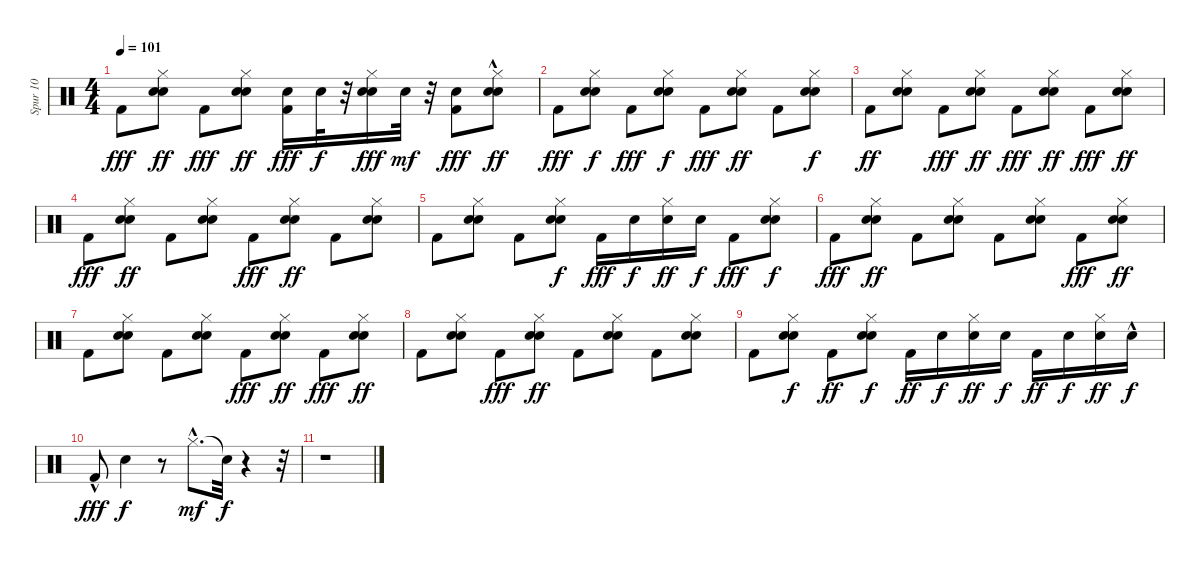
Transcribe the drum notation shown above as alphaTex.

\track ("Spur 10" "Spur 10") {instrument percussion}
\staff {score}
\articulation defaults
\ts (4 4)
\tempo 101
\clef neutral
\ks c "Kick (hit) 2".8{dy fff}
("Snare (hit) 2" "Snare (hit) 2" "Hi-Hat (closed)").8{dy ff} "Kick (hit) 2".8{dy fff} ("Snare (hit) 2" "Hi-Hat (closed)" "Snare (hit) 2").8{dy ff} ("Snare (hit) 2" "Kick (hit) 2").16{dy fff} "Snare (hit) 2".32{dy f} r.32 ("Snare (hit) 2" "Hi-Hat (closed)" "Snare (hit) 2").16{dy fff} "Snare (hit) 2".32{dy mf} r.32 ("Snare (hit) 2" "Kick (hit) 2").8{dy fff} ("Snare (hit) 2" "Snare (hit) 2"{hac} "Hi-Hat (closed)"{hac}).8{dy ff} |
"Kick (hit) 2".8{dy fff} ("Snare (hit) 2" "Hi-Hat (closed)" "Snare (hit) 2").8{dy f} "Kick (hit) 2".8{dy fff} ("Snare (hit) 2" "Hi-Hat (closed)" "Snare (hit) 2").8{dy f} "Kick (hit) 2".8{dy fff} ("Snare (hit) 2" "Hi-Hat (closed)" "Snare (hit) 2").8{dy ff} "Kick (hit) 2".8 ("Snare (hit) 2" "Snare (hit) 2" "Hi-Hat (closed)").8{dy f} |
"Kick (hit) 2".8{dy ff} ("Snare (hit) 2" "Snare (hit) 2" "Hi-Hat (closed)").8 "Kick (hit) 2".8{dy fff} ("Snare (hit) 2" "Snare (hit) 2" "Hi-Hat (closed)").8{dy ff} "Kick (hit) 2".8{dy fff} ("Snare (hit) 2" "Snare (hit) 2" "Hi-Hat (closed)").8{dy ff} "Kick (hit) 2".8{dy fff} ("Snare (hit) 2" "Snare (hit) 2" "Hi-Hat (closed)").8{dy ff} |
"Kick (hit) 2".8{dy fff} ("Snare (hit) 2" "Snare (hit) 2" "Hi-Hat (closed)").8{dy ff} "Kick (hit) 2".8 ("Snare (hit) 2" "Snare (hit) 2" "Hi-Hat (closed)").8 "Kick (hit) 2".8{dy fff} ("Snare (hit) 2" "Snare (hit) 2" "Hi-Hat (closed)").8{dy ff} "Kick (hit) 2".8 ("Snare (hit) 2" "Hi-Hat (closed)" "Snare (hit) 2").8 |
"Kick (hit) 2".8 ("Snare (hit) 2" "Hi-Hat (closed)" "Snare (hit) 2").8 "Kick (hit) 2".8 ("Snare (hit) 2" "Snare (hit) 2" "Hi-Hat (closed)").8{dy f} "Kick (hit) 2".16{dy fff} "Snare (hit) 2".16{dy f} ("Snare (hit) 2" "Hi-Hat (closed)").16{dy ff} "Snare (hit) 2".16{dy f} "Kick (hit) 2".8{dy fff} ("Snare (hit) 2" "Snare (hit) 2" "Hi-Hat (closed)").8{dy f} |
"Kick (hit) 2".8{dy fff} ("Snare (hit) 2" "Hi-Hat (closed)" "Snare (hit) 2").8{dy ff} "Kick (hit) 2".8 ("Snare (hit) 2" "Hi-Hat (closed)" "Snare (hit) 2").8 "Kick (hit) 2".8 ("Snare (hit) 2" "Hi-Hat (closed)" "Snare (hit) 2").8 "Kick (hit) 2".8{dy fff} ("Snare (hit) 2" "Snare (hit) 2" "Hi-Hat (closed)").8{dy ff} |
"Kick (hit) 2".8 ("Snare (hit) 2" "Hi-Hat (closed)" "Snare (hit) 2").8 "Kick (hit) 2".8 ("Snare (hit) 2" "Hi-Hat (closed)" "Snare (hit) 2").8 "Kick (hit) 2".8{dy fff} ("Snare (hit) 2" "Snare (hit) 2" "Hi-Hat (closed)").8{dy ff} "Kick (hit) 2".8{dy fff} ("Snare (hit) 2" "Hi-Hat (closed)" "Snare (hit) 2").8{dy ff} |
"Kick (hit) 2".8 ("Snare (hit) 2" "Hi-Hat (closed)" "Snare (hit) 2").8 "Kick (hit) 2".8{dy fff} ("Snare (hit) 2" "Snare (hit) 2" "Hi-Hat (closed)").8{dy ff} "Kick (hit) 2".8 ("Snare (hit) 2" "Hi-Hat (closed)" "Snare (hit) 2").8 "Kick (hit) 2".8 ("Snare (hit) 2" "Hi-Hat (closed)" "Snare (hit) 2").8 |
"Kick (hit) 2".8 ("Snare (hit) 2" "Hi-Hat (closed)" "Snare (hit) 2").8{dy f} "Kick (hit) 2".8{dy ff} ("Snare (hit) 2" "Hi-Hat (closed)" "Snare (hit) 2").8{dy f} "Kick (hit) 2".16{dy ff} "Snare (hit) 2".16{dy f} ("Hi-Hat (closed)" "Snare (hit) 2").16{dy ff} "Snare (hit) 2".16{dy f} "Kick (hit) 2".16{dy ff} "Snare (hit) 2".16{dy f} ("Snare (hit) 2" "Hi-Hat (closed)").16{dy ff} "Snare (hit) 2"{hac}.16{dy f} |
"Kick (hit) 2"{hac}.8{dy fff volume 9} "Snare (hit) 2".4{dy f} r.8 "Hi-Hat (closed)"{hac}.8{d dy mf} "Snare (hit)"{t}.32{dy f} r.4 r.32 |
r.1
